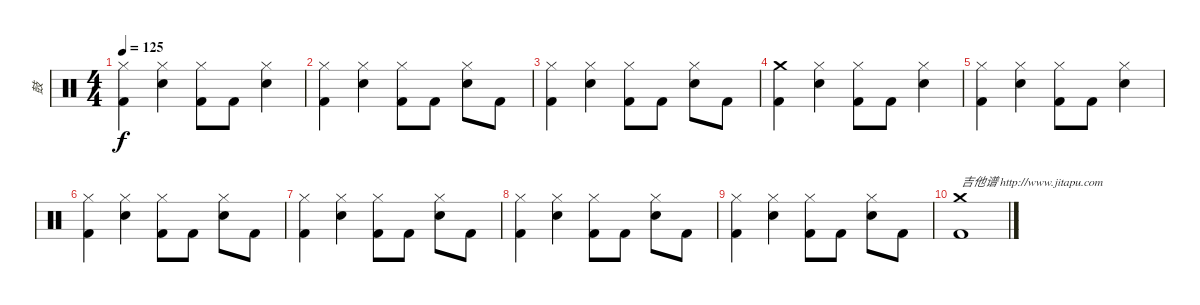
\track ("鼓" "鼓") {instrument percussion}
\staff {score}
\articulation defaults
\ts (4 4)
\tempo 125
\clef neutral
\ks c
("Hi-Hat (closed)" "Kick (hit) 2").4{dy f} ("Hi-Hat (closed)" "Electric Snare (hit)").4 ("Hi-Hat (closed)" "Kick (hit) 2").8 "Kick (hit) 2".8 ("Hi-Hat (closed)" "Electric Snare (hit)").4 |
("Hi-Hat (closed)" "Kick (hit) 2").4 ("Hi-Hat (closed)" "Electric Snare (hit)").4 ("Hi-Hat (closed)" "Kick (hit) 2").8 "Kick (hit) 2".8 ("Hi-Hat (closed)" "Electric Snare (hit)").8 "Kick (hit) 2".8 |
("Hi-Hat (closed)" "Kick (hit) 2").4 ("Hi-Hat (closed)" "Electric Snare (hit)").4 ("Hi-Hat (closed)" "Kick (hit) 2").8 "Kick (hit) 2".8 ("Hi-Hat (closed)" "Electric Snare (hit)").8 "Kick (hit) 2".8 |
("Crash medium (hit)" "Kick (hit) 2").4 ("Hi-Hat (closed)" "Electric Snare (hit)").4 ("Hi-Hat (closed)" "Kick (hit) 2").8 "Kick (hit) 2".8 ("Hi-Hat (closed)" "Electric Snare (hit)").4 |
("Hi-Hat (closed)" "Kick (hit) 2").4 ("Hi-Hat (closed)" "Electric Snare (hit)").4 ("Hi-Hat (closed)" "Kick (hit) 2").8 "Kick (hit) 2".8 ("Hi-Hat (closed)" "Electric Snare (hit)").4 |
("Hi-Hat (closed)" "Kick (hit) 2").4 ("Hi-Hat (closed)" "Electric Snare (hit)").4 ("Hi-Hat (closed)" "Kick (hit) 2").8 "Kick (hit) 2".8 ("Hi-Hat (closed)" "Electric Snare (hit)").8 "Kick (hit) 2".8 |
("Hi-Hat (closed)" "Kick (hit) 2").4 ("Hi-Hat (closed)" "Electric Snare (hit)").4 ("Hi-Hat (closed)" "Kick (hit) 2").8 "Kick (hit) 2".8 ("Hi-Hat (closed)" "Electric Snare (hit)").8 "Kick (hit) 2".8 |
("Hi-Hat (closed)" "Kick (hit) 2").4 ("Hi-Hat (closed)" "Electric Snare (hit)").4 ("Hi-Hat (closed)" "Kick (hit) 2").8 "Kick (hit) 2".8 ("Hi-Hat (closed)" "Electric Snare (hit)").8 "Kick (hit) 2".8 |
("Hi-Hat (closed)" "Kick (hit) 2").4 ("Hi-Hat (closed)" "Electric Snare (hit)").4 ("Hi-Hat (closed)" "Kick (hit) 2").8 "Kick (hit) 2".8 ("Hi-Hat (closed)" "Electric Snare (hit)").8 "Kick (hit) 2".8 |
("Crash medium (hit)" "Kick (hit) 2").1{txt "吉他谱 http://www.jitapu.com"}
